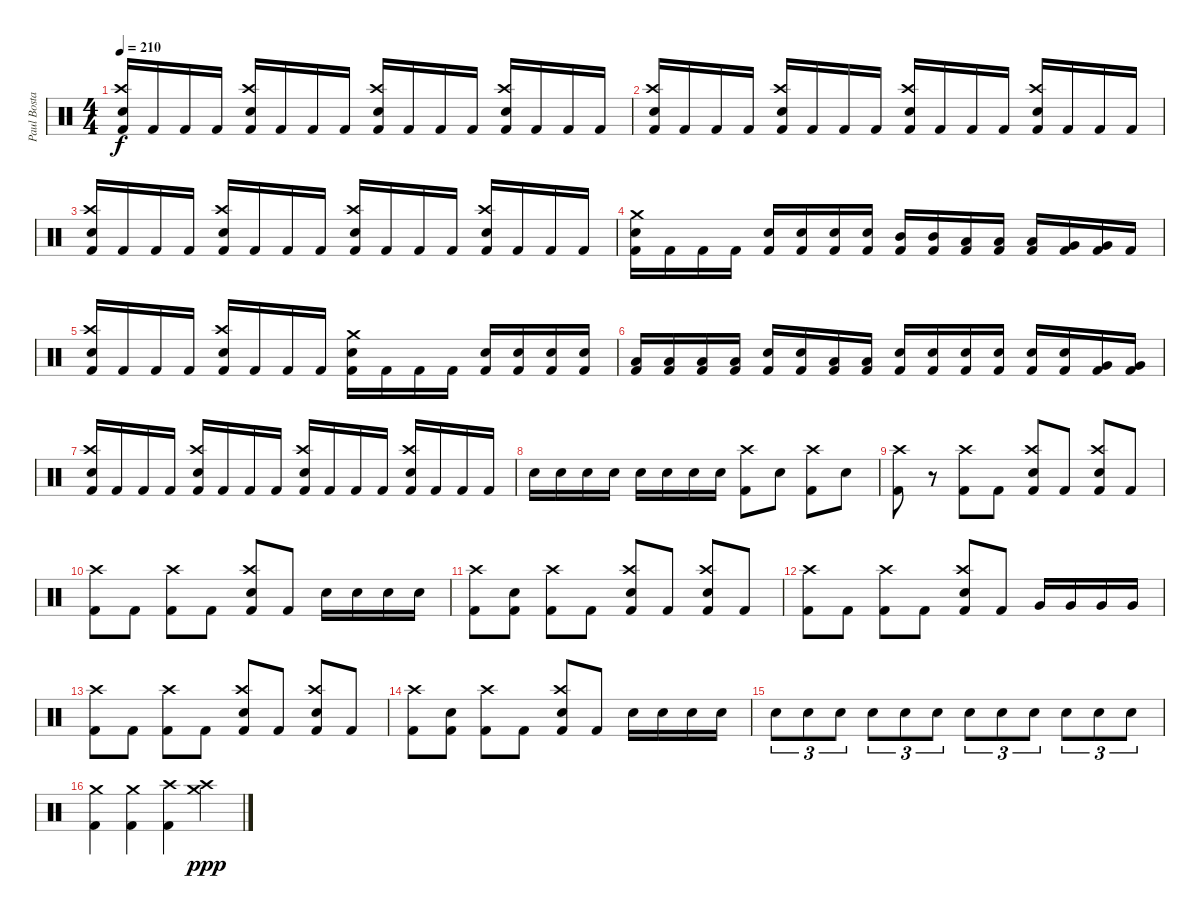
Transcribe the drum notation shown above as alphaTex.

\track ("Paul Bostaph" "Paul Bosta") {instrument percussion}
\staff {score}
\articulation defaults
\ts (4 4)
\tempo 210
\clef neutral
\ks c
("Electric Snare (hit)" "Crash high (hit)" "Kick (hit) 2").16{dy f} "Kick (hit) 2".16 "Kick (hit) 2".16 "Kick (hit) 2".16 ("Electric Snare (hit)" "Crash high (hit)" "Kick (hit) 2").16 "Kick (hit) 2".16 "Kick (hit) 2".16 "Kick (hit) 2".16 ("Electric Snare (hit)" "Crash high (hit)" "Kick (hit) 2").16 "Kick (hit) 2".16 "Kick (hit) 2".16 "Kick (hit) 2".16 ("Electric Snare (hit)" "Crash high (hit)" "Kick (hit) 2").16 "Kick (hit) 2".16 "Kick (hit) 2".16 "Kick (hit) 2".16 |
("Electric Snare (hit)" "Crash high (hit)" "Kick (hit) 2").16 "Kick (hit) 2".16 "Kick (hit) 2".16 "Kick (hit) 2".16 ("Electric Snare (hit)" "Crash high (hit)" "Kick (hit) 2").16 "Kick (hit) 2".16 "Kick (hit) 2".16 "Kick (hit) 2".16 ("Electric Snare (hit)" "Crash high (hit)" "Kick (hit) 2").16 "Kick (hit) 2".16 "Kick (hit) 2".16 "Kick (hit) 2".16 ("Electric Snare (hit)" "Crash high (hit)" "Kick (hit) 2").16 "Kick (hit) 2".16 "Kick (hit) 2".16 "Kick (hit) 2".16 |
("Electric Snare (hit)" "Crash high (hit)" "Kick (hit) 2").16 "Kick (hit) 2".16 "Kick (hit) 2".16 "Kick (hit) 2".16 ("Electric Snare (hit)" "Crash high (hit)" "Kick (hit) 2").16 "Kick (hit) 2".16 "Kick (hit) 2".16 "Kick (hit) 2".16 ("Electric Snare (hit)" "Crash high (hit)" "Kick (hit) 2").16 "Kick (hit) 2".16 "Kick (hit) 2".16 "Kick (hit) 2".16 ("Electric Snare (hit)" "Crash high (hit)" "Kick (hit) 2").16 "Kick (hit) 2".16 "Kick (hit) 2".16 "Kick (hit) 2".16 |
("Electric Snare (hit)" "Crash medium (hit)" "Kick (hit) 2").16 "Kick (hit) 2".16 "Kick (hit) 2".16 "Kick (hit) 2".16 ("Electric Snare (hit)" "Kick (hit) 2").16 ("Electric Snare (hit)" "Kick (hit) 2").16 ("Electric Snare (hit)" "Kick (hit) 2").16 ("Electric Snare (hit)" "Kick (hit) 2").16 ("Mid Tom (hit)" "Kick (hit) 2").16 ("Mid Tom (hit)" "Kick (hit) 2").16 ("Low Tom (hit)" "Kick (hit) 2").16 ("Low Tom (hit)" "Kick (hit) 2").16 ("Low Tom (hit)" "Kick (hit) 2").16 ("Very Low Tom (hit)" "Kick (hit) 2").16 ("Very Low Tom (hit)" "Kick (hit) 2").16 "Kick (hit) 2".16 |
("Electric Snare (hit)" "Crash high (hit)" "Kick (hit) 2").16 "Kick (hit) 2".16 "Kick (hit) 2".16 "Kick (hit) 2".16 ("Electric Snare (hit)" "Crash high (hit)" "Kick (hit) 2").16 "Kick (hit) 2".16 "Kick (hit) 2".16 "Kick (hit) 2".16 ("Electric Snare (hit)" "Crash medium (hit)" "Kick (hit) 2").16 "Kick (hit) 2".16 "Kick (hit) 2".16 "Kick (hit) 2".16 ("Electric Snare (hit)" "Kick (hit) 2").16 ("Electric Snare (hit)" "Kick (hit) 2").16 ("Electric Snare (hit)" "Kick (hit) 2").16 ("Electric Snare (hit)" "Kick (hit) 2").16 |
("Low Tom (hit)" "Kick (hit) 2").16 ("Low Tom (hit)" "Kick (hit) 2").16 ("Low Tom (hit)" "Kick (hit) 2").16 ("Low Tom (hit)" "Kick (hit) 2").16 ("Electric Snare (hit)" "Kick (hit) 2").16 ("Electric Snare (hit)" "Kick (hit) 2").16 ("Low Tom (hit)" "Kick (hit) 2").16 ("Low Tom (hit)" "Kick (hit) 2").16 ("Electric Snare (hit)" "Kick (hit) 2").16 ("Electric Snare (hit)" "Kick (hit) 2").16 ("Electric Snare (hit)" "Kick (hit) 2").16 ("Electric Snare (hit)" "Kick (hit) 2").16 ("Electric Snare (hit)" "Kick (hit) 2").16 ("Electric Snare (hit)" "Kick (hit) 2").16 ("Very Low Tom (hit)" "Kick (hit) 2").16 ("Very Low Tom (hit)" "Kick (hit) 2").16 |
("Electric Snare (hit)" "Crash high (hit)" "Kick (hit) 2").16 "Kick (hit) 2".16 "Kick (hit) 2".16 "Kick (hit) 2".16 ("Electric Snare (hit)" "Crash high (hit)" "Kick (hit) 2").16 "Kick (hit) 2".16 "Kick (hit) 2".16 "Kick (hit) 2".16 ("Electric Snare (hit)" "Crash high (hit)" "Kick (hit) 2").16 "Kick (hit) 2".16 "Kick (hit) 2".16 "Kick (hit) 2".16 ("Electric Snare (hit)" "Crash high (hit)" "Kick (hit) 2").16 "Kick (hit) 2".16 "Kick (hit) 2".16 "Kick (hit) 2".16 |
"Electric Snare (hit)".16 "Electric Snare (hit)".16 "Electric Snare (hit)".16 "Electric Snare (hit)".16 "Electric Snare (hit)".16 "Electric Snare (hit)".16 "Electric Snare (hit)".16 "Electric Snare (hit)".16 ("Crash high (hit)" "Kick (hit) 2").8 "Electric Snare (hit)".8 ("Crash high (hit)" "Kick (hit) 2").8 "Electric Snare (hit)".8 |
("Crash high (hit)" "Kick (hit) 2").8 r.8 ("Crash high (hit)" "Kick (hit) 2").8 "Kick (hit) 2".8 ("Electric Snare (hit)" "Crash high (hit)" "Kick (hit) 2").8 "Kick (hit) 2".8 ("Electric Snare (hit)" "Crash high (hit)" "Kick (hit) 2").8 "Kick (hit) 2".8 |
("Crash high (hit)" "Kick (hit) 2").8 "Kick (hit) 2".8 ("Crash high (hit)" "Kick (hit) 2").8 "Kick (hit) 2".8 ("Electric Snare (hit)" "Crash high (hit)" "Kick (hit) 2").8 "Kick (hit) 2".8 "Electric Snare (hit)".16 "Electric Snare (hit)".16 "Electric Snare (hit)".16 "Electric Snare (hit)".16 |
("Crash high (hit)" "Kick (hit) 2").8 ("Electric Snare (hit)" "Kick (hit) 2").8 ("Crash high (hit)" "Kick (hit) 2").8 "Kick (hit) 2".8 ("Electric Snare (hit)" "Crash high (hit)" "Kick (hit) 2").8 "Kick (hit) 2".8 ("Electric Snare (hit)" "Crash high (hit)" "Kick (hit) 2").8 "Kick (hit) 2".8 |
("Crash high (hit)" "Kick (hit) 2").8 "Kick (hit) 2".8 ("Crash high (hit)" "Kick (hit) 2").8 "Kick (hit) 2".8 ("Electric Snare (hit)" "Crash high (hit)" "Kick (hit) 2").8 "Kick (hit) 2".8 "Very Low Tom (hit)".16 "Very Low Tom (hit)".16 "Very Low Tom (hit)".16 "Very Low Tom (hit)".16 |
("Crash high (hit)" "Kick (hit) 2").8 "Kick (hit) 2".8 ("Crash high (hit)" "Kick (hit) 2").8 "Kick (hit) 2".8 ("Electric Snare (hit)" "Crash high (hit)" "Kick (hit) 2").8 "Kick (hit) 2".8 ("Electric Snare (hit)" "Crash high (hit)" "Kick (hit) 2").8 "Kick (hit) 2".8 |
("Crash high (hit)" "Kick (hit) 2").8 ("Electric Snare (hit)" "Kick (hit) 2").8 ("Crash high (hit)" "Kick (hit) 2").8 "Kick (hit) 2".8 ("Electric Snare (hit)" "Crash high (hit)" "Kick (hit) 2").8 "Kick (hit) 2".8 "Electric Snare (hit)".16 "Electric Snare (hit)".16 "Electric Snare (hit)".16 "Electric Snare (hit)".16 |
"Electric Snare (hit)".8{tu (3 2)} "Electric Snare (hit)".8{tu (3 2)} "Electric Snare (hit)".8{tu (3 2)} "Electric Snare (hit)".8{tu (3 2)} "Electric Snare (hit)".8{tu (3 2)} "Electric Snare (hit)".8{tu (3 2)} "Electric Snare (hit)".8{tu (3 2)} "Electric Snare (hit)".8{tu (3 2)} "Electric Snare (hit)".8{tu (3 2)} "Electric Snare (hit)".8{tu (3 2)} "Electric Snare (hit)".8{tu (3 2)} "Electric Snare (hit)".8{tu (3 2)} |
("Crash medium (hit)" "Kick (hit) 2").4 ("Crash medium (hit)" "Kick (hit) 2").4 ("Crash high (hit)" "Kick (hit) 2").4 ("Crash medium (hit)" "Crash high (hit)").4{dy ppp}
